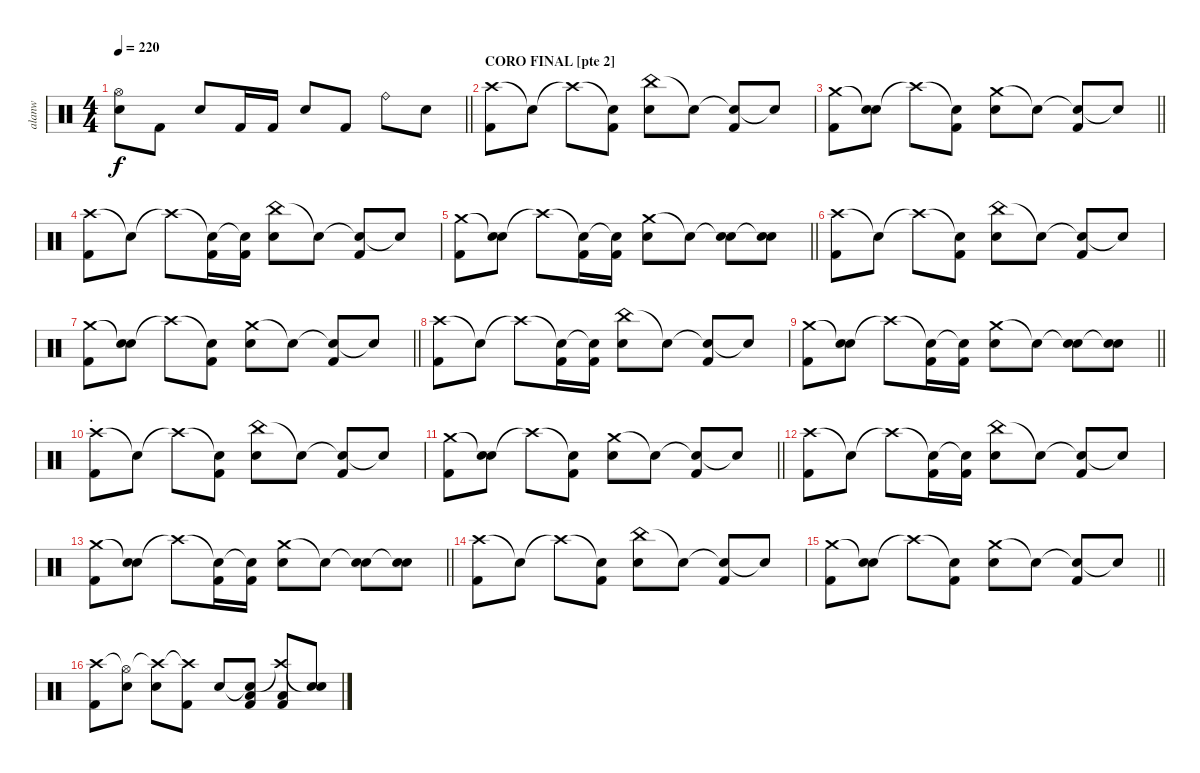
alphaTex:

\track ("alanw" "alanw") {instrument percussion}
\staff {score}
\articulation defaults
\ts (4 4)
\tempo 220
\clef neutral
\barLineRight lightlight
\ks c
("Hi-Hat (open)" "Electric Snare (hit)").8{dy f} "Kick (hit) 2".8 "Electric Snare (hit)".8 "Kick (hit) 2".16 "Kick (hit) 2".16 "Electric Snare (hit)".8 "Kick (hit) 2".8 "Ride (bell)".8 "Electric Snare (hit)".8 |
\section ("" "CORO FINAL [pte 2]")
("Crash high (hit)" "Kick (hit) 2").8 "Snare (hit)"{t}.8 "Crash high (hit)"{t}.8 ("Snare (hit)"{t} "Kick (hit) 2").8 ("China (hit)" "Electric Snare (hit)").8 "Snare (hit)"{t}.8 ("Snare (hit)"{t} "Kick (hit) 2").8 "Snare (hit)"{t}.8 |
\barLineRight lightlight
("Crash medium (hit)" "Kick (hit) 2").8 ("Snare (hit)"{t} "Electric Snare (hit)").8 "Crash high (hit)"{t}.8 ("Snare (hit)"{t} "Kick (hit) 2").8 ("Crash medium (hit)" "Electric Snare (hit)").8 "Snare (hit)"{t}.8 ("Snare (hit)"{t} "Kick (hit) 2").8 "Snare (hit)"{t}.8 |
("Crash high (hit)" "Kick (hit) 2").8 "Snare (hit)"{t}.8 "Crash high (hit)"{t}.8 ("Snare (hit)"{t} "Kick (hit) 2").16 ("Snare (hit)"{t} "Kick (hit) 2").16 ("China (hit)" "Electric Snare (hit)").8 "Snare (hit)"{t}.8 ("Snare (hit)"{t} "Kick (hit) 2").8 "Snare (hit)"{t}.8 |
\barLineRight lightlight
("Crash medium (hit)" "Kick (hit) 2").8 ("Snare (hit)"{t} "Electric Snare (hit)").8 "Crash high (hit)"{t}.8 ("Snare (hit)"{t} "Kick (hit) 2").16 ("Snare (hit)"{t} "Kick (hit) 2").16 ("Crash medium (hit)" "Electric Snare (hit)").8 "Snare (hit)"{t}.8 ("Snare (hit)"{t} "Electric Snare (hit)").8 ("Snare (hit)"{t} "Electric Snare (hit)").8 |
("Crash high (hit)" "Kick (hit) 2").8 "Snare (hit)"{t}.8 "Crash high (hit)"{t}.8 ("Snare (hit)"{t} "Kick (hit) 2").8 ("China (hit)" "Electric Snare (hit)").8 "Snare (hit)"{t}.8 ("Snare (hit)"{t} "Kick (hit) 2").8 "Snare (hit)"{t}.8 |
\barLineRight lightlight
("Crash medium (hit)" "Kick (hit) 2").8 ("Snare (hit)"{t} "Electric Snare (hit)").8 "Crash high (hit)"{t}.8 ("Snare (hit)"{t} "Kick (hit) 2").8 ("Crash medium (hit)" "Electric Snare (hit)").8 "Snare (hit)"{t}.8 ("Snare (hit)"{t} "Kick (hit) 2").8 "Snare (hit)"{t}.8 |
("Crash high (hit)" "Kick (hit) 2").8 "Snare (hit)"{t}.8 "Crash high (hit)"{t}.8 ("Snare (hit)"{t} "Kick (hit) 2").16 ("Snare (hit)"{t} "Kick (hit) 2").16 ("China (hit)" "Electric Snare (hit)").8 "Snare (hit)"{t}.8 ("Snare (hit)"{t} "Kick (hit) 2").8 "Snare (hit)"{t}.8 |
\barLineRight lightlight
("Crash medium (hit)" "Kick (hit) 2").8 ("Snare (hit)"{t} "Electric Snare (hit)").8 "Crash high (hit)"{t}.8 ("Snare (hit)"{t} "Kick (hit) 2").16 ("Snare (hit)"{t} "Kick (hit) 2").16 ("Crash medium (hit)" "Electric Snare (hit)").8 "Snare (hit)"{t}.8 ("Snare (hit)"{t} "Electric Snare (hit)").8 ("Snare (hit)"{t} "Electric Snare (hit)").8 |
\section ("" ".")
("Crash high (hit)" "Kick (hit) 2").8 "Snare (hit)"{t}.8 "Crash high (hit)"{t}.8 ("Snare (hit)"{t} "Kick (hit) 2").8 ("China (hit)" "Electric Snare (hit)").8 "Snare (hit)"{t}.8 ("Snare (hit)"{t} "Kick (hit) 2").8 "Snare (hit)"{t}.8 |
\barLineRight lightlight
("Crash medium (hit)" "Kick (hit) 2").8 ("Snare (hit)"{t} "Electric Snare (hit)").8 "Crash high (hit)"{t}.8 ("Snare (hit)"{t} "Kick (hit) 2").8 ("Crash medium (hit)" "Electric Snare (hit)").8 "Snare (hit)"{t}.8 ("Snare (hit)"{t} "Kick (hit) 2").8 "Snare (hit)"{t}.8 |
("Crash high (hit)" "Kick (hit) 2").8 "Snare (hit)"{t}.8 "Crash high (hit)"{t}.8 ("Snare (hit)"{t} "Kick (hit) 2").16 ("Snare (hit)"{t} "Kick (hit) 2").16 ("China (hit)" "Electric Snare (hit)").8 "Snare (hit)"{t}.8 ("Snare (hit)"{t} "Kick (hit) 2").8 "Snare (hit)"{t}.8 |
\barLineRight lightlight
("Crash medium (hit)" "Kick (hit) 2").8 ("Snare (hit)"{t} "Electric Snare (hit)").8 "Crash high (hit)"{t}.8 ("Snare (hit)"{t} "Kick (hit) 2").16 ("Snare (hit)"{t} "Kick (hit) 2").16 ("Crash medium (hit)" "Electric Snare (hit)").8 "Snare (hit)"{t}.8 ("Snare (hit)"{t} "Electric Snare (hit)").8 ("Snare (hit)"{t} "Electric Snare (hit)").8 |
("Crash high (hit)" "Kick (hit) 2").8 "Snare (hit)"{t}.8 "Crash high (hit)"{t}.8 ("Snare (hit)"{t} "Kick (hit) 2").8 ("China (hit)" "Electric Snare (hit)").8 "Snare (hit)"{t}.8 ("Snare (hit)"{t} "Kick (hit) 2").8 "Snare (hit)"{t}.8 |
\barLineRight lightlight
("Crash medium (hit)" "Kick (hit) 2").8 ("Snare (hit)"{t} "Electric Snare (hit)").8 "Crash high (hit)"{t}.8 ("Snare (hit)"{t} "Kick (hit) 2").8 ("Crash medium (hit)" "Electric Snare (hit)").8 "Snare (hit)"{t}.8 ("Snare (hit)"{t} "Kick (hit) 2").8 "Snare (hit)"{t}.8 |
("Crash high (hit)" "Kick (hit) 2").8 ("Hi-Hat (open)"{t} "Electric Snare (hit)").8 ("Crash high (hit)"{t} "Electric Snare (hit)").8 ("Crash high (hit)"{t} "Kick (hit) 2").8 "Electric Snare (hit)".8 ("Snare (hit)"{t} "Low Tom (hit)" "Kick (hit) 2").8 ("Crash high (hit)"{t} "Low Tom (hit)" "Kick (hit) 2").8 ("Snare (hit)"{t} "Electric Snare (hit)").8
